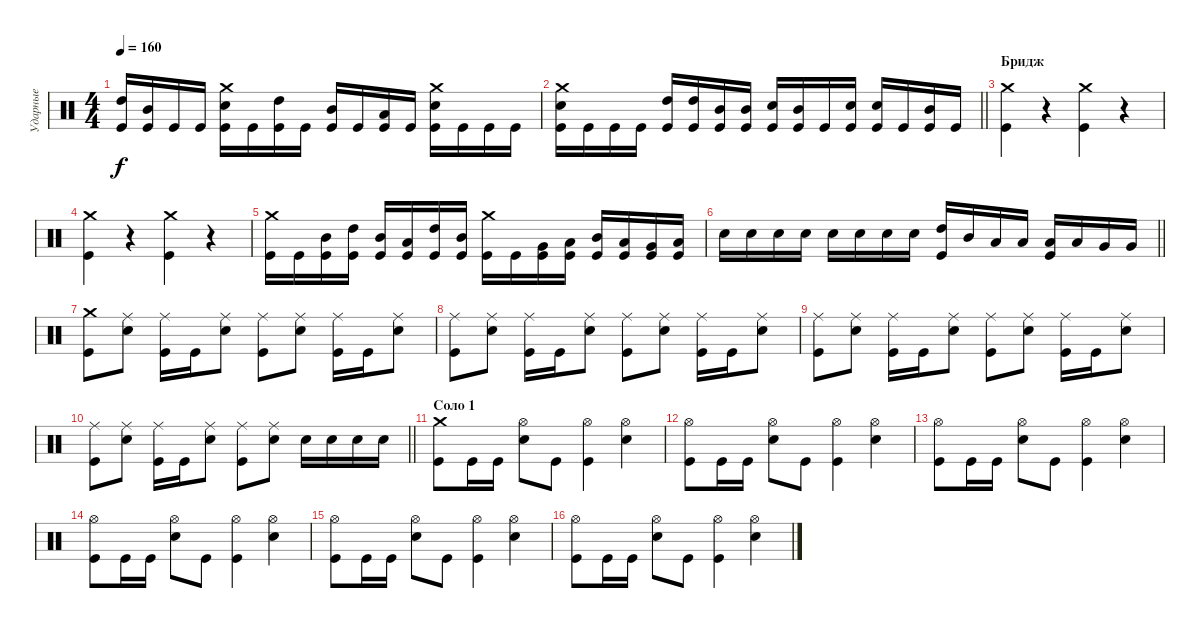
\track ("Ударные" "Ударные") {instrument percussion}
\staff {score}
\articulation defaults
\ts (4 4)
\tempo 160
\clef neutral
\ks c
("Kick (hit)" "High Tom (hit)").16{dy f} ("Kick (hit)" "Mid Tom (hit)").16 "Kick (hit)".16 "Kick (hit)".16 ("Kick (hit)" "Snare (hit) 2" "Crash medium (hit)").16 "Kick (hit)".16 ("Kick (hit)" "High Tom (hit)").16 "Kick (hit)".16 ("Kick (hit)" "Mid Tom (hit)").16 "Kick (hit)".16 ("Kick (hit)" "Low Tom (hit)").16 "Kick (hit)".16 ("Kick (hit)" "Snare (hit) 2" "Crash medium (hit)").16 "Kick (hit)".16 "Kick (hit)".16 "Kick (hit)".16 |
\barLineRight lightlight
("Kick (hit)" "Snare (hit) 2" "Crash medium (hit)").16 "Kick (hit)".16 "Kick (hit)".16 "Kick (hit)".16 ("Kick (hit)" "High Tom (hit)").16 ("Kick (hit)" "High Tom (hit)").16 ("Kick (hit)" "Mid Tom (hit)").16 ("Kick (hit)" "Mid Tom (hit)").16 ("Kick (hit)" "Snare (hit) 2").16 ("Kick (hit)" "Mid Tom (hit)").16 "Kick (hit)".16 ("Kick (hit)" "Snare (hit) 2").16 ("Kick (hit)" "Snare (hit) 2").16 "Kick (hit)".16 ("Kick (hit)" "Mid Tom (hit)").16 "Kick (hit)".16 |
\section ("" "Бридж")
("Kick (hit)" "Crash medium (hit)").4 r.4 ("Kick (hit)" "Crash medium (hit)").4 r.4 |
("Kick (hit)" "Crash medium (hit)").4 r.4 ("Kick (hit)" "Crash medium (hit)").4 r.4 |
("Kick (hit)" "Crash medium (hit)").16 "Kick (hit)".16 ("Kick (hit)" "Mid Tom (hit)").16 ("Kick (hit)" "High Tom (hit)").16 ("Kick (hit)" "Mid Tom (hit)").16 ("Kick (hit)" "Low Tom (hit)").16 ("Kick (hit)" "High Tom (hit)").16 ("Kick (hit)" "Mid Tom (hit)").16 ("Kick (hit)" "Crash medium (hit)").16 "Kick (hit)".16 ("Kick (hit)" "Very Low Tom (hit)").16 ("Kick (hit)" "Low Tom (hit)").16 ("Kick (hit)" "Mid Tom (hit)").16 ("Kick (hit)" "Low Tom (hit)").16 ("Kick (hit)" "Very Low Tom (hit)").16 ("Kick (hit)" "Low Tom (hit)").16 |
\barLineRight lightlight "Snare (hit) 2".16 "Snare (hit) 2".16 "Snare (hit) 2".16 "Snare (hit) 2".16 "Snare (hit) 2".16 "Snare (hit) 2".16 "Snare (hit) 2".16 "Snare (hit) 2".16
("Kick (hit)" "High Tom (hit)").16 "Mid Tom (hit)".16 "Low Tom (hit)".16 "Low Tom (hit)".16 ("Kick (hit)" "Low Tom (hit)").16 "Low Tom (hit)".16 "Very Low Tom (hit)".16 "Very Low Tom (hit)".16 |
("Kick (hit)" "Crash medium (hit)").8 ("Snare (hit) 2" "Ride (middle)").8 ("Kick (hit)" "Ride (middle)").16 "Kick (hit)".16 ("Snare (hit) 2" "Ride (middle)").8 ("Kick (hit)" "Ride (middle)").8 ("Snare (hit) 2" "Ride (middle)").8 ("Kick (hit)" "Ride (middle)").16 "Kick (hit)".16 ("Snare (hit) 2" "Ride (middle)").8 |
("Kick (hit)" "Ride (middle)").8 ("Snare (hit) 2" "Ride (middle)").8 ("Kick (hit)" "Ride (middle)").16 "Kick (hit)".16 ("Snare (hit) 2" "Ride (middle)").8 ("Kick (hit)" "Ride (middle)").8 ("Snare (hit) 2" "Ride (middle)").8 ("Kick (hit)" "Ride (middle)").16 "Kick (hit)".16 ("Snare (hit) 2" "Ride (middle)").8 |
("Kick (hit)" "Ride (middle)").8 ("Snare (hit) 2" "Ride (middle)").8 ("Kick (hit)" "Ride (middle)").16 "Kick (hit)".16 ("Snare (hit) 2" "Ride (middle)").8 ("Kick (hit)" "Ride (middle)").8 ("Snare (hit) 2" "Ride (middle)").8 ("Kick (hit)" "Ride (middle)").16 "Kick (hit)".16 ("Snare (hit) 2" "Ride (middle)").8 |
\barLineRight lightlight
("Kick (hit)" "Ride (middle)").8 ("Snare (hit) 2" "Ride (middle)").8 ("Kick (hit)" "Ride (middle)").16 "Kick (hit)".16 ("Snare (hit) 2" "Ride (middle)").8 ("Kick (hit)" "Ride (middle)").8 ("Snare (hit) 2" "Ride (middle)").8 "Snare (hit) 2".16 "Snare (hit) 2".16 "Snare (hit) 2".16 "Snare (hit) 2".16 |
\section ("" "Соло 1")
("Kick (hit)" "Crash medium (hit)").8 "Kick (hit)".16 "Kick (hit)".16 ("Snare (hit) 2" "Hi-Hat (open)").8 "Kick (hit)".8 ("Kick (hit)" "Hi-Hat (open)").4 ("Snare (hit) 2" "Hi-Hat (open)").4 |
("Kick (hit)" "Hi-Hat (open)").8 "Kick (hit)".16 "Kick (hit)".16 ("Snare (hit) 2" "Hi-Hat (open)").8 "Kick (hit)".8 ("Kick (hit)" "Hi-Hat (open)").4 ("Snare (hit) 2" "Hi-Hat (open)").4 |
("Kick (hit)" "Hi-Hat (open)").8 "Kick (hit)".16 "Kick (hit)".16 ("Snare (hit) 2" "Hi-Hat (open)").8 "Kick (hit)".8 ("Kick (hit)" "Hi-Hat (open)").4 ("Snare (hit) 2" "Hi-Hat (open)").4 |
("Kick (hit)" "Hi-Hat (open)").8 "Kick (hit)".16 "Kick (hit)".16 ("Snare (hit) 2" "Hi-Hat (open)").8 "Kick (hit)".8 ("Kick (hit)" "Hi-Hat (open)").4 ("Snare (hit) 2" "Hi-Hat (open)").4 |
("Kick (hit)" "Hi-Hat (open)").8 "Kick (hit)".16 "Kick (hit)".16 ("Snare (hit) 2" "Hi-Hat (open)").8 "Kick (hit)".8 ("Kick (hit)" "Hi-Hat (open)").4 ("Snare (hit) 2" "Hi-Hat (open)").4 |
("Kick (hit)" "Hi-Hat (open)").8 "Kick (hit)".16 "Kick (hit)".16 ("Snare (hit) 2" "Hi-Hat (open)").8 "Kick (hit)".8 ("Kick (hit)" "Hi-Hat (open)").4 ("Snare (hit) 2" "Hi-Hat (open)").4
